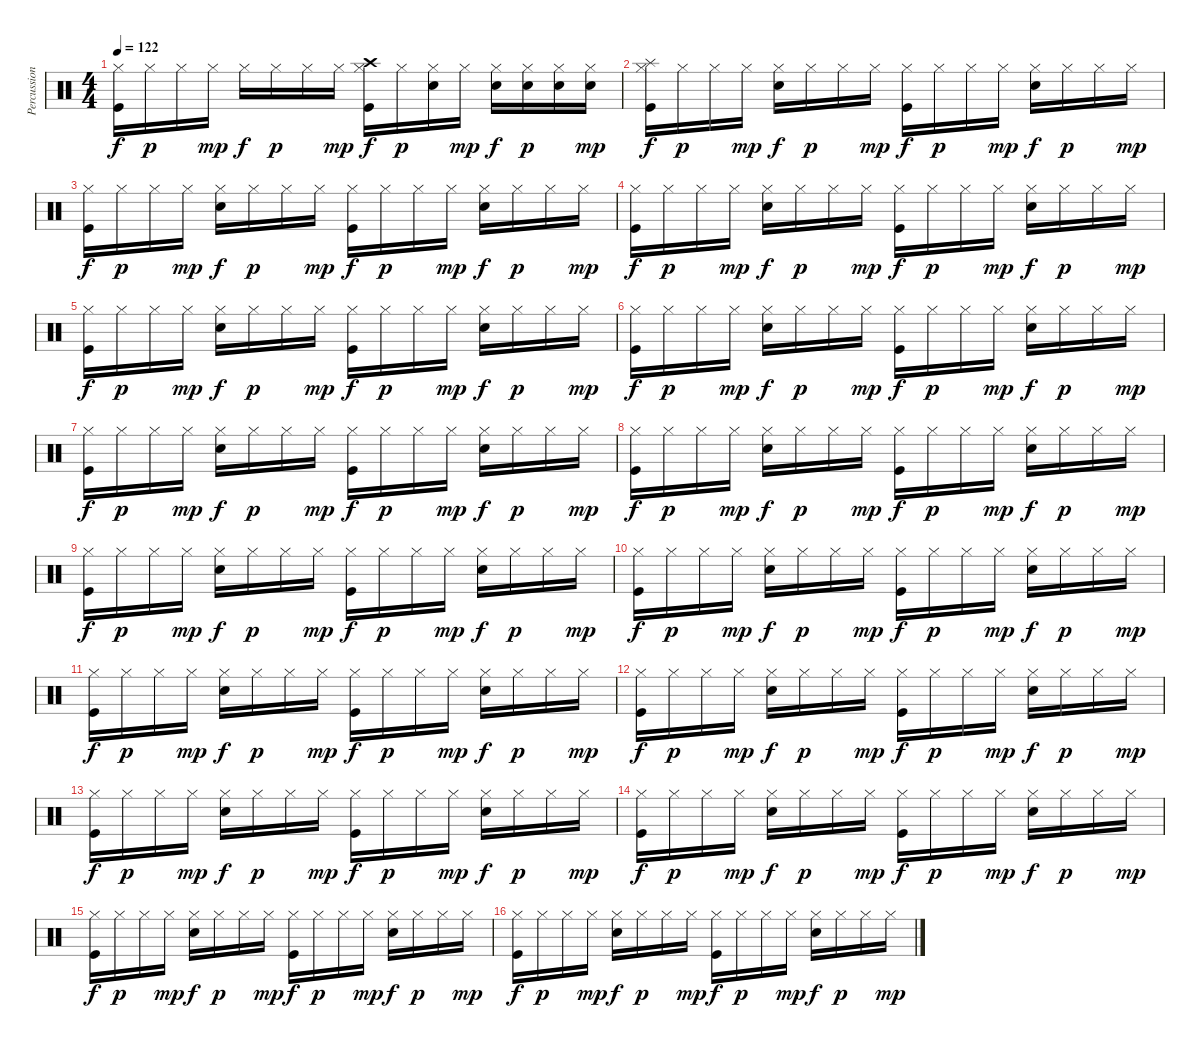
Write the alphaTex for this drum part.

\track ("Percussion" "Percussion") {instrument percussion}
\staff {score}
\articulation defaults
\ts (4 4)
\tempo 122
\clef neutral
\ks c
("Hi-Hat (closed)" "Kick (hit)").16{dy f} "Hi-Hat (closed)".16{dy p} "Hi-Hat (closed)".16 "Hi-Hat (closed)".16{dy mp} "Hi-Hat (closed)".16{dy f} "Hi-Hat (closed)".16{dy p} "Hi-Hat (closed)".16 "Hi-Hat (closed)".16{dy mp} ("Crash high (hit)" "Hi-Hat (closed)" "Kick (hit)").16{dy f} "Hi-Hat (closed)".16{dy p} ("Hi-Hat (closed)" "Snare (hit) 2").16 "Hi-Hat (closed)".16{dy mp} ("Hi-Hat (closed)" "Snare (hit) 2").16{dy f} ("Hi-Hat (closed)" "Snare (hit) 2").16{dy p} ("Hi-Hat (closed)" "Snare (hit) 2").16 ("Hi-Hat (closed)" "Snare (hit) 2").16{dy mp} |
("Splash (hit)" "Hi-Hat (closed)" "Kick (hit)").16{dy f} "Hi-Hat (closed)".16{dy p} "Hi-Hat (closed)".16 "Hi-Hat (closed)".16{dy mp} ("Hi-Hat (closed)" "Snare (hit) 2").16{dy f} "Hi-Hat (closed)".16{dy p} "Hi-Hat (closed)".16 "Hi-Hat (closed)".16{dy mp} ("Hi-Hat (closed)" "Kick (hit)").16{dy f} "Hi-Hat (closed)".16{dy p} "Hi-Hat (closed)".16 "Hi-Hat (closed)".16{dy mp} ("Hi-Hat (closed)" "Snare (hit) 2").16{dy f} "Hi-Hat (closed)".16{dy p} "Hi-Hat (closed)".16 "Hi-Hat (closed)".16{dy mp} |
("Hi-Hat (closed)" "Kick (hit)").16{dy f} "Hi-Hat (closed)".16{dy p} "Hi-Hat (closed)".16 "Hi-Hat (closed)".16{dy mp} ("Hi-Hat (closed)" "Snare (hit) 2").16{dy f} "Hi-Hat (closed)".16{dy p} "Hi-Hat (closed)".16 "Hi-Hat (closed)".16{dy mp} ("Hi-Hat (closed)" "Kick (hit)").16{dy f} "Hi-Hat (closed)".16{dy p} "Hi-Hat (closed)".16 "Hi-Hat (closed)".16{dy mp} ("Hi-Hat (closed)" "Snare (hit) 2").16{dy f} "Hi-Hat (closed)".16{dy p} "Hi-Hat (closed)".16 "Hi-Hat (closed)".16{dy mp} |
("Hi-Hat (closed)" "Kick (hit)").16{dy f} "Hi-Hat (closed)".16{dy p} "Hi-Hat (closed)".16 "Hi-Hat (closed)".16{dy mp} ("Hi-Hat (closed)" "Snare (hit) 2").16{dy f} "Hi-Hat (closed)".16{dy p} "Hi-Hat (closed)".16 "Hi-Hat (closed)".16{dy mp} ("Hi-Hat (closed)" "Kick (hit)").16{dy f} "Hi-Hat (closed)".16{dy p} "Hi-Hat (closed)".16 "Hi-Hat (closed)".16{dy mp} ("Hi-Hat (closed)" "Snare (hit) 2").16{dy f} "Hi-Hat (closed)".16{dy p} "Hi-Hat (closed)".16 "Hi-Hat (closed)".16{dy mp} |
("Hi-Hat (closed)" "Kick (hit)").16{dy f} "Hi-Hat (closed)".16{dy p} "Hi-Hat (closed)".16 "Hi-Hat (closed)".16{dy mp} ("Hi-Hat (closed)" "Snare (hit) 2").16{dy f} "Hi-Hat (closed)".16{dy p} "Hi-Hat (closed)".16 "Hi-Hat (closed)".16{dy mp} ("Hi-Hat (closed)" "Kick (hit)").16{dy f} "Hi-Hat (closed)".16{dy p} "Hi-Hat (closed)".16 "Hi-Hat (closed)".16{dy mp} ("Hi-Hat (closed)" "Snare (hit) 2").16{dy f} "Hi-Hat (closed)".16{dy p} "Hi-Hat (closed)".16 "Hi-Hat (closed)".16{dy mp} |
("Hi-Hat (closed)" "Kick (hit)").16{dy f} "Hi-Hat (closed)".16{dy p} "Hi-Hat (closed)".16 "Hi-Hat (closed)".16{dy mp} ("Hi-Hat (closed)" "Snare (hit) 2").16{dy f} "Hi-Hat (closed)".16{dy p} "Hi-Hat (closed)".16 "Hi-Hat (closed)".16{dy mp} ("Hi-Hat (closed)" "Kick (hit)").16{dy f} "Hi-Hat (closed)".16{dy p} "Hi-Hat (closed)".16 "Hi-Hat (closed)".16{dy mp} ("Hi-Hat (closed)" "Snare (hit) 2").16{dy f} "Hi-Hat (closed)".16{dy p} "Hi-Hat (closed)".16 "Hi-Hat (closed)".16{dy mp} |
("Hi-Hat (closed)" "Kick (hit)").16{dy f} "Hi-Hat (closed)".16{dy p} "Hi-Hat (closed)".16 "Hi-Hat (closed)".16{dy mp} ("Hi-Hat (closed)" "Snare (hit) 2").16{dy f} "Hi-Hat (closed)".16{dy p} "Hi-Hat (closed)".16 "Hi-Hat (closed)".16{dy mp} ("Hi-Hat (closed)" "Kick (hit)").16{dy f} "Hi-Hat (closed)".16{dy p} "Hi-Hat (closed)".16 "Hi-Hat (closed)".16{dy mp} ("Hi-Hat (closed)" "Snare (hit) 2").16{dy f} "Hi-Hat (closed)".16{dy p} "Hi-Hat (closed)".16 "Hi-Hat (closed)".16{dy mp} |
("Hi-Hat (closed)" "Kick (hit)").16{dy f} "Hi-Hat (closed)".16{dy p} "Hi-Hat (closed)".16 "Hi-Hat (closed)".16{dy mp} ("Hi-Hat (closed)" "Snare (hit) 2").16{dy f} "Hi-Hat (closed)".16{dy p} "Hi-Hat (closed)".16 "Hi-Hat (closed)".16{dy mp} ("Hi-Hat (closed)" "Kick (hit)").16{dy f} "Hi-Hat (closed)".16{dy p} "Hi-Hat (closed)".16 "Hi-Hat (closed)".16{dy mp} ("Hi-Hat (closed)" "Snare (hit) 2").16{dy f} "Hi-Hat (closed)".16{dy p} "Hi-Hat (closed)".16 "Hi-Hat (closed)".16{dy mp} |
("Hi-Hat (closed)" "Kick (hit)").16{dy f} "Hi-Hat (closed)".16{dy p} "Hi-Hat (closed)".16 "Hi-Hat (closed)".16{dy mp} ("Hi-Hat (closed)" "Snare (hit) 2").16{dy f} "Hi-Hat (closed)".16{dy p} "Hi-Hat (closed)".16 "Hi-Hat (closed)".16{dy mp} ("Hi-Hat (closed)" "Kick (hit)").16{dy f} "Hi-Hat (closed)".16{dy p} "Hi-Hat (closed)".16 "Hi-Hat (closed)".16{dy mp} ("Hi-Hat (closed)" "Snare (hit) 2").16{dy f} "Hi-Hat (closed)".16{dy p} "Hi-Hat (closed)".16 "Hi-Hat (closed)".16{dy mp} |
("Hi-Hat (closed)" "Kick (hit)").16{dy f} "Hi-Hat (closed)".16{dy p} "Hi-Hat (closed)".16 "Hi-Hat (closed)".16{dy mp} ("Hi-Hat (closed)" "Snare (hit) 2").16{dy f} "Hi-Hat (closed)".16{dy p} "Hi-Hat (closed)".16 "Hi-Hat (closed)".16{dy mp} ("Hi-Hat (closed)" "Kick (hit)").16{dy f} "Hi-Hat (closed)".16{dy p} "Hi-Hat (closed)".16 "Hi-Hat (closed)".16{dy mp} ("Hi-Hat (closed)" "Snare (hit) 2").16{dy f} "Hi-Hat (closed)".16{dy p} "Hi-Hat (closed)".16 "Hi-Hat (closed)".16{dy mp} |
("Hi-Hat (closed)" "Kick (hit)").16{dy f} "Hi-Hat (closed)".16{dy p} "Hi-Hat (closed)".16 "Hi-Hat (closed)".16{dy mp} ("Hi-Hat (closed)" "Snare (hit) 2").16{dy f} "Hi-Hat (closed)".16{dy p} "Hi-Hat (closed)".16 "Hi-Hat (closed)".16{dy mp} ("Hi-Hat (closed)" "Kick (hit)").16{dy f} "Hi-Hat (closed)".16{dy p} "Hi-Hat (closed)".16 "Hi-Hat (closed)".16{dy mp} ("Hi-Hat (closed)" "Snare (hit) 2").16{dy f} "Hi-Hat (closed)".16{dy p} "Hi-Hat (closed)".16 "Hi-Hat (closed)".16{dy mp} |
("Hi-Hat (closed)" "Kick (hit)").16{dy f} "Hi-Hat (closed)".16{dy p} "Hi-Hat (closed)".16 "Hi-Hat (closed)".16{dy mp} ("Hi-Hat (closed)" "Snare (hit) 2").16{dy f} "Hi-Hat (closed)".16{dy p} "Hi-Hat (closed)".16 "Hi-Hat (closed)".16{dy mp} ("Hi-Hat (closed)" "Kick (hit)").16{dy f} "Hi-Hat (closed)".16{dy p} "Hi-Hat (closed)".16 "Hi-Hat (closed)".16{dy mp} ("Hi-Hat (closed)" "Snare (hit) 2").16{dy f} "Hi-Hat (closed)".16{dy p} "Hi-Hat (closed)".16 "Hi-Hat (closed)".16{dy mp} |
("Hi-Hat (closed)" "Kick (hit)").16{dy f} "Hi-Hat (closed)".16{dy p} "Hi-Hat (closed)".16 "Hi-Hat (closed)".16{dy mp} ("Hi-Hat (closed)" "Snare (hit) 2").16{dy f} "Hi-Hat (closed)".16{dy p} "Hi-Hat (closed)".16 "Hi-Hat (closed)".16{dy mp} ("Hi-Hat (closed)" "Kick (hit)").16{dy f} "Hi-Hat (closed)".16{dy p} "Hi-Hat (closed)".16 "Hi-Hat (closed)".16{dy mp} ("Hi-Hat (closed)" "Snare (hit) 2").16{dy f} "Hi-Hat (closed)".16{dy p} "Hi-Hat (closed)".16 "Hi-Hat (closed)".16{dy mp} |
("Hi-Hat (closed)" "Kick (hit)").16{dy f} "Hi-Hat (closed)".16{dy p} "Hi-Hat (closed)".16 "Hi-Hat (closed)".16{dy mp} ("Hi-Hat (closed)" "Snare (hit) 2").16{dy f} "Hi-Hat (closed)".16{dy p} "Hi-Hat (closed)".16 "Hi-Hat (closed)".16{dy mp} ("Hi-Hat (closed)" "Kick (hit)").16{dy f} "Hi-Hat (closed)".16{dy p} "Hi-Hat (closed)".16 "Hi-Hat (closed)".16{dy mp} ("Hi-Hat (closed)" "Snare (hit) 2").16{dy f} "Hi-Hat (closed)".16{dy p} "Hi-Hat (closed)".16 "Hi-Hat (closed)".16{dy mp} |
("Hi-Hat (closed)" "Kick (hit)").16{dy f} "Hi-Hat (closed)".16{dy p} "Hi-Hat (closed)".16 "Hi-Hat (closed)".16{dy mp} ("Hi-Hat (closed)" "Snare (hit) 2").16{dy f} "Hi-Hat (closed)".16{dy p} "Hi-Hat (closed)".16 "Hi-Hat (closed)".16{dy mp} ("Hi-Hat (closed)" "Kick (hit)").16{dy f} "Hi-Hat (closed)".16{dy p} "Hi-Hat (closed)".16 "Hi-Hat (closed)".16{dy mp} ("Hi-Hat (closed)" "Snare (hit) 2").16{dy f} "Hi-Hat (closed)".16{dy p} "Hi-Hat (closed)".16 "Hi-Hat (closed)".16{dy mp} |
("Hi-Hat (closed)" "Kick (hit)").16{dy f} "Hi-Hat (closed)".16{dy p} "Hi-Hat (closed)".16 "Hi-Hat (closed)".16{dy mp} ("Hi-Hat (closed)" "Snare (hit) 2").16{dy f} "Hi-Hat (closed)".16{dy p} "Hi-Hat (closed)".16 "Hi-Hat (closed)".16{dy mp} ("Hi-Hat (closed)" "Kick (hit)").16{dy f} "Hi-Hat (closed)".16{dy p} "Hi-Hat (closed)".16 "Hi-Hat (closed)".16{dy mp} ("Hi-Hat (closed)" "Snare (hit) 2").16{dy f} "Hi-Hat (closed)".16{dy p} "Hi-Hat (closed)".16 "Hi-Hat (closed)".16{dy mp}
